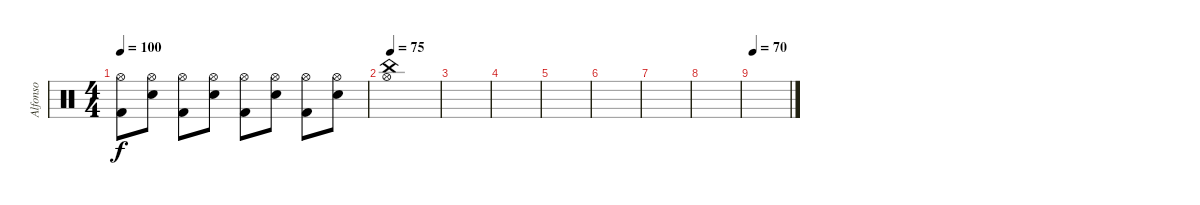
\track ("Alfonso" "Alfonso") {instrument percussion}
\staff {score}
\articulation defaults
\ts (4 4)
\tempo 100
\clef neutral
\ks c
("Hi-Hat (open)" "Kick (hit) 2").8{dy f} ("Hi-Hat (open)" "Electric Snare (hit)").8 ("Hi-Hat (open)" "Kick (hit) 2").8 ("Hi-Hat (open)" "Electric Snare (hit)").8 ("Hi-Hat (open)" "Kick (hit) 2").8 ("Hi-Hat (open)" "Electric Snare (hit)").8 ("Hi-Hat (open)" "Kick (hit) 2").8 ("Hi-Hat (open)" "Electric Snare (hit)").8 |
\tempo 75
("China (hit)" "Hi-Hat (open)").1 |
|
|
|
|
|
|
\tempo 70
